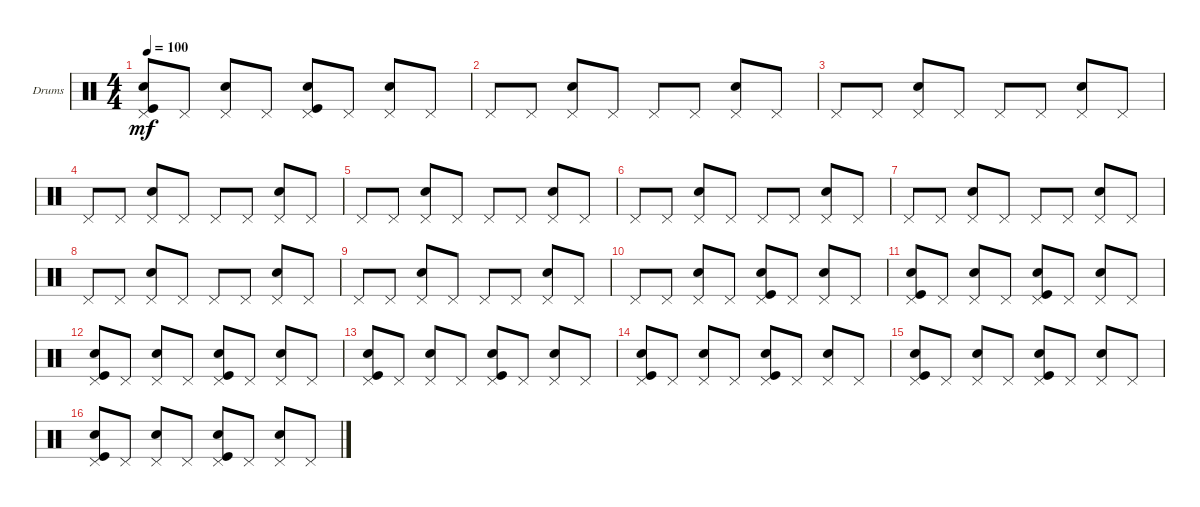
\defaultSystemsLayout 4
\bracketExtendMode groupsimilarinstruments
\firstSystemTrackNameOrientation horizontal
\otherSystemsTrackNameOrientation horizontal
\track ("Drumkit" "Drums") {instrument percussion}
\staff {score}
\articulation defaults
\ts (4 4)
\tempo 100
\clef neutral
\scale
0.333333
\ks c
("Snare (hit) 2" "Kick (hit)" "Pedal Hi-Hat (hit)").8{dy mf} "Pedal Hi-Hat (hit)".8 ("Snare (hit) 2" "Pedal Hi-Hat (hit)").8 "Pedal Hi-Hat (hit)".8 ("Snare (hit) 2" "Kick (hit)" "Pedal Hi-Hat (hit)").8 "Pedal Hi-Hat (hit)".8 ("Snare (hit) 2" "Pedal Hi-Hat (hit)").8 "Pedal Hi-Hat (hit)".8 |
\scale
0.333333 "Pedal Hi-Hat (hit)".8 "Pedal Hi-Hat (hit)".8 ("Snare (hit) 2" "Pedal Hi-Hat (hit)").8 "Pedal Hi-Hat (hit)".8 "Pedal Hi-Hat (hit)".8 "Pedal Hi-Hat (hit)".8 ("Snare (hit) 2" "Pedal Hi-Hat (hit)").8 "Pedal Hi-Hat (hit)".8 |
\scale
0.333333 "Pedal Hi-Hat (hit)".8 "Pedal Hi-Hat (hit)".8 ("Snare (hit) 2" "Pedal Hi-Hat (hit)").8 "Pedal Hi-Hat (hit)".8 "Pedal Hi-Hat (hit)".8 "Pedal Hi-Hat (hit)".8 ("Snare (hit) 2" "Pedal Hi-Hat (hit)").8 "Pedal Hi-Hat (hit)".8 |
\scale
0.333333 "Pedal Hi-Hat (hit)".8 "Pedal Hi-Hat (hit)".8 ("Snare (hit) 2" "Pedal Hi-Hat (hit)").8 "Pedal Hi-Hat (hit)".8 "Pedal Hi-Hat (hit)".8 "Pedal Hi-Hat (hit)".8 ("Snare (hit) 2" "Pedal Hi-Hat (hit)").8 "Pedal Hi-Hat (hit)".8 |
\scale
0.333333 "Pedal Hi-Hat (hit)".8 "Pedal Hi-Hat (hit)".8 ("Snare (hit) 2" "Pedal Hi-Hat (hit)").8 "Pedal Hi-Hat (hit)".8 "Pedal Hi-Hat (hit)".8 "Pedal Hi-Hat (hit)".8 ("Snare (hit) 2" "Pedal Hi-Hat (hit)").8 "Pedal Hi-Hat (hit)".8 |
\scale
0.333333 "Pedal Hi-Hat (hit)".8 "Pedal Hi-Hat (hit)".8 ("Snare (hit) 2" "Pedal Hi-Hat (hit)").8 "Pedal Hi-Hat (hit)".8 "Pedal Hi-Hat (hit)".8 "Pedal Hi-Hat (hit)".8 ("Snare (hit) 2" "Pedal Hi-Hat (hit)").8 "Pedal Hi-Hat (hit)".8 |
\scale
0.333333 "Pedal Hi-Hat (hit)".8 "Pedal Hi-Hat (hit)".8 ("Snare (hit) 2" "Pedal Hi-Hat (hit)").8 "Pedal Hi-Hat (hit)".8 "Pedal Hi-Hat (hit)".8 "Pedal Hi-Hat (hit)".8 ("Snare (hit) 2" "Pedal Hi-Hat (hit)").8 "Pedal Hi-Hat (hit)".8 |
\scale
0.333333 "Pedal Hi-Hat (hit)".8 "Pedal Hi-Hat (hit)".8 ("Snare (hit) 2" "Pedal Hi-Hat (hit)").8 "Pedal Hi-Hat (hit)".8 "Pedal Hi-Hat (hit)".8 "Pedal Hi-Hat (hit)".8 ("Snare (hit) 2" "Pedal Hi-Hat (hit)").8 "Pedal Hi-Hat (hit)".8 |
\scale
0.333333 "Pedal Hi-Hat (hit)".8 "Pedal Hi-Hat (hit)".8 ("Snare (hit) 2" "Pedal Hi-Hat (hit)").8 "Pedal Hi-Hat (hit)".8 "Pedal Hi-Hat (hit)".8 "Pedal Hi-Hat (hit)".8 ("Snare (hit) 2" "Pedal Hi-Hat (hit)").8 "Pedal Hi-Hat (hit)".8 |
\scale
0.333333 "Pedal Hi-Hat (hit)".8 "Pedal Hi-Hat (hit)".8 ("Snare (hit) 2" "Pedal Hi-Hat (hit)").8 "Pedal Hi-Hat (hit)".8 ("Pedal Hi-Hat (hit)" "Kick (hit)" "Snare (hit) 2").8 "Pedal Hi-Hat (hit)".8 ("Snare (hit) 2" "Pedal Hi-Hat (hit)").8 "Pedal Hi-Hat (hit)".8 |
\scale
0.333333 ("Snare (hit) 2" "Kick (hit)" "Pedal Hi-Hat (hit)").8 "Pedal Hi-Hat (hit)".8 ("Snare (hit) 2" "Pedal Hi-Hat (hit)").8 "Pedal Hi-Hat (hit)".8 ("Snare (hit) 2" "Kick (hit)" "Pedal Hi-Hat (hit)").8 "Pedal Hi-Hat (hit)".8 ("Snare (hit) 2" "Pedal Hi-Hat (hit)").8 "Pedal Hi-Hat (hit)".8 |
\scale
0.333333 ("Snare (hit) 2" "Kick (hit)" "Pedal Hi-Hat (hit)").8 "Pedal Hi-Hat (hit)".8 ("Snare (hit) 2" "Pedal Hi-Hat (hit)").8 "Pedal Hi-Hat (hit)".8 ("Snare (hit) 2" "Kick (hit)" "Pedal Hi-Hat (hit)").8 "Pedal Hi-Hat (hit)".8 ("Snare (hit) 2" "Pedal Hi-Hat (hit)").8 "Pedal Hi-Hat (hit)".8 |
\scale
0.333333 ("Snare (hit) 2" "Kick (hit)" "Pedal Hi-Hat (hit)").8 "Pedal Hi-Hat (hit)".8 ("Snare (hit) 2" "Pedal Hi-Hat (hit)").8 "Pedal Hi-Hat (hit)".8 ("Snare (hit) 2" "Kick (hit)" "Pedal Hi-Hat (hit)").8 "Pedal Hi-Hat (hit)".8 ("Snare (hit) 2" "Pedal Hi-Hat (hit)").8 "Pedal Hi-Hat (hit)".8 |
\scale
0.333333 ("Snare (hit) 2" "Kick (hit)" "Pedal Hi-Hat (hit)").8 "Pedal Hi-Hat (hit)".8 ("Snare (hit) 2" "Pedal Hi-Hat (hit)").8 "Pedal Hi-Hat (hit)".8 ("Snare (hit) 2" "Kick (hit)" "Pedal Hi-Hat (hit)").8 "Pedal Hi-Hat (hit)".8 ("Snare (hit) 2" "Pedal Hi-Hat (hit)").8 "Pedal Hi-Hat (hit)".8 |
("Snare (hit) 2" "Kick (hit)" "Pedal Hi-Hat (hit)").8 "Pedal Hi-Hat (hit)".8 ("Snare (hit) 2" "Pedal Hi-Hat (hit)").8 "Pedal Hi-Hat (hit)".8 ("Snare (hit) 2" "Kick (hit)" "Pedal Hi-Hat (hit)").8 "Pedal Hi-Hat (hit)".8 ("Snare (hit) 2" "Pedal Hi-Hat (hit)").8 "Pedal Hi-Hat (hit)".8 |
\scale
0.333333 ("Snare (hit) 2" "Kick (hit)" "Pedal Hi-Hat (hit)").8 "Pedal Hi-Hat (hit)".8 ("Snare (hit) 2" "Pedal Hi-Hat (hit)").8 "Pedal Hi-Hat (hit)".8 ("Snare (hit) 2" "Kick (hit)" "Pedal Hi-Hat (hit)").8 "Pedal Hi-Hat (hit)".8 ("Snare (hit) 2" "Pedal Hi-Hat (hit)").8 "Pedal Hi-Hat (hit)".8
